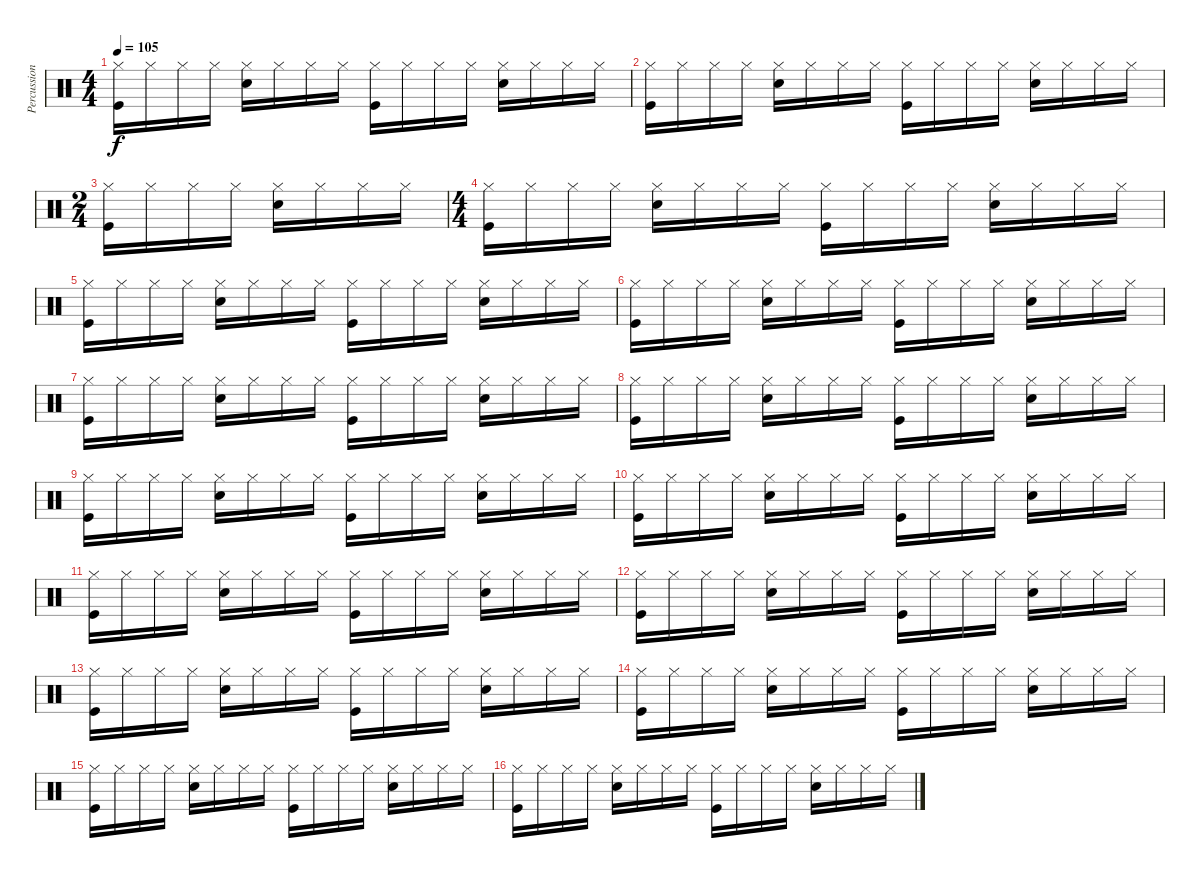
\track ("Percussion" "Percussion") {instrument percussion}
\staff {score}
\articulation defaults
\ts (4 4)
\tempo 105
\clef neutral
\ks c
("Hi-Hat (closed)" "Kick (hit)").16{dy f} "Hi-Hat (closed)".16 "Hi-Hat (closed)".16 "Hi-Hat (closed)".16 ("Hi-Hat (closed)" "Snare (hit) 2").16 "Hi-Hat (closed)".16 "Hi-Hat (closed)".16 "Hi-Hat (closed)".16 ("Hi-Hat (closed)" "Kick (hit)").16 "Hi-Hat (closed)".16 "Hi-Hat (closed)".16 "Hi-Hat (closed)".16 ("Hi-Hat (closed)" "Snare (hit) 2").16 "Hi-Hat (closed)".16 "Hi-Hat (closed)".16 "Hi-Hat (closed)".16 |
("Hi-Hat (closed)" "Kick (hit)").16 "Hi-Hat (closed)".16 "Hi-Hat (closed)".16 "Hi-Hat (closed)".16 ("Hi-Hat (closed)" "Snare (hit) 2").16 "Hi-Hat (closed)".16 "Hi-Hat (closed)".16 "Hi-Hat (closed)".16 ("Hi-Hat (closed)" "Kick (hit)").16 "Hi-Hat (closed)".16 "Hi-Hat (closed)".16 "Hi-Hat (closed)".16 ("Hi-Hat (closed)" "Snare (hit) 2").16 "Hi-Hat (closed)".16 "Hi-Hat (closed)".16 "Hi-Hat (closed)".16 |
\ts (2 4)
("Hi-Hat (closed)" "Kick (hit)").16 "Hi-Hat (closed)".16 "Hi-Hat (closed)".16 "Hi-Hat (closed)".16 ("Hi-Hat (closed)" "Snare (hit) 2").16 "Hi-Hat (closed)".16 "Hi-Hat (closed)".16 "Hi-Hat (closed)".16 |
\ts (4 4)
("Hi-Hat (closed)" "Kick (hit)").16 "Hi-Hat (closed)".16 "Hi-Hat (closed)".16 "Hi-Hat (closed)".16 ("Hi-Hat (closed)" "Snare (hit) 2").16 "Hi-Hat (closed)".16 "Hi-Hat (closed)".16 "Hi-Hat (closed)".16 ("Hi-Hat (closed)" "Kick (hit)").16 "Hi-Hat (closed)".16 "Hi-Hat (closed)".16 "Hi-Hat (closed)".16 ("Hi-Hat (closed)" "Snare (hit) 2").16 "Hi-Hat (closed)".16 "Hi-Hat (closed)".16 "Hi-Hat (closed)".16 |
("Hi-Hat (closed)" "Kick (hit)").16 "Hi-Hat (closed)".16 "Hi-Hat (closed)".16 "Hi-Hat (closed)".16 ("Hi-Hat (closed)" "Snare (hit) 2").16 "Hi-Hat (closed)".16 "Hi-Hat (closed)".16 "Hi-Hat (closed)".16 ("Hi-Hat (closed)" "Kick (hit)").16 "Hi-Hat (closed)".16 "Hi-Hat (closed)".16 "Hi-Hat (closed)".16 ("Hi-Hat (closed)" "Snare (hit) 2").16 "Hi-Hat (closed)".16 "Hi-Hat (closed)".16 "Hi-Hat (closed)".16 |
("Hi-Hat (closed)" "Kick (hit)").16 "Hi-Hat (closed)".16 "Hi-Hat (closed)".16 "Hi-Hat (closed)".16 ("Hi-Hat (closed)" "Snare (hit) 2").16 "Hi-Hat (closed)".16 "Hi-Hat (closed)".16 "Hi-Hat (closed)".16 ("Hi-Hat (closed)" "Kick (hit)").16 "Hi-Hat (closed)".16 "Hi-Hat (closed)".16 "Hi-Hat (closed)".16 ("Hi-Hat (closed)" "Snare (hit) 2").16 "Hi-Hat (closed)".16 "Hi-Hat (closed)".16 "Hi-Hat (closed)".16 |
("Hi-Hat (closed)" "Kick (hit)").16 "Hi-Hat (closed)".16 "Hi-Hat (closed)".16 "Hi-Hat (closed)".16 ("Hi-Hat (closed)" "Snare (hit) 2").16 "Hi-Hat (closed)".16 "Hi-Hat (closed)".16 "Hi-Hat (closed)".16 ("Hi-Hat (closed)" "Kick (hit)").16 "Hi-Hat (closed)".16 "Hi-Hat (closed)".16 "Hi-Hat (closed)".16 ("Hi-Hat (closed)" "Snare (hit) 2").16 "Hi-Hat (closed)".16 "Hi-Hat (closed)".16 "Hi-Hat (closed)".16 |
("Hi-Hat (closed)" "Kick (hit)").16 "Hi-Hat (closed)".16 "Hi-Hat (closed)".16 "Hi-Hat (closed)".16 ("Hi-Hat (closed)" "Snare (hit) 2").16 "Hi-Hat (closed)".16 "Hi-Hat (closed)".16 "Hi-Hat (closed)".16 ("Hi-Hat (closed)" "Kick (hit)").16 "Hi-Hat (closed)".16 "Hi-Hat (closed)".16 "Hi-Hat (closed)".16 ("Hi-Hat (closed)" "Snare (hit) 2").16 "Hi-Hat (closed)".16 "Hi-Hat (closed)".16 "Hi-Hat (closed)".16 |
("Hi-Hat (closed)" "Kick (hit)").16 "Hi-Hat (closed)".16 "Hi-Hat (closed)".16 "Hi-Hat (closed)".16 ("Hi-Hat (closed)" "Snare (hit) 2").16 "Hi-Hat (closed)".16 "Hi-Hat (closed)".16 "Hi-Hat (closed)".16 ("Hi-Hat (closed)" "Kick (hit)").16 "Hi-Hat (closed)".16 "Hi-Hat (closed)".16 "Hi-Hat (closed)".16 ("Hi-Hat (closed)" "Snare (hit) 2").16 "Hi-Hat (closed)".16 "Hi-Hat (closed)".16 "Hi-Hat (closed)".16 |
("Hi-Hat (closed)" "Kick (hit)").16 "Hi-Hat (closed)".16 "Hi-Hat (closed)".16 "Hi-Hat (closed)".16 ("Hi-Hat (closed)" "Snare (hit) 2").16 "Hi-Hat (closed)".16 "Hi-Hat (closed)".16 "Hi-Hat (closed)".16 ("Hi-Hat (closed)" "Kick (hit)").16 "Hi-Hat (closed)".16 "Hi-Hat (closed)".16 "Hi-Hat (closed)".16 ("Hi-Hat (closed)" "Snare (hit) 2").16 "Hi-Hat (closed)".16 "Hi-Hat (closed)".16 "Hi-Hat (closed)".16 |
("Hi-Hat (closed)" "Kick (hit)").16 "Hi-Hat (closed)".16 "Hi-Hat (closed)".16 "Hi-Hat (closed)".16 ("Hi-Hat (closed)" "Snare (hit) 2").16 "Hi-Hat (closed)".16 "Hi-Hat (closed)".16 "Hi-Hat (closed)".16 ("Hi-Hat (closed)" "Kick (hit)").16 "Hi-Hat (closed)".16 "Hi-Hat (closed)".16 "Hi-Hat (closed)".16 ("Hi-Hat (closed)" "Snare (hit) 2").16 "Hi-Hat (closed)".16 "Hi-Hat (closed)".16 "Hi-Hat (closed)".16 |
("Hi-Hat (closed)" "Kick (hit)").16 "Hi-Hat (closed)".16 "Hi-Hat (closed)".16 "Hi-Hat (closed)".16 ("Hi-Hat (closed)" "Snare (hit) 2").16 "Hi-Hat (closed)".16 "Hi-Hat (closed)".16 "Hi-Hat (closed)".16 ("Hi-Hat (closed)" "Kick (hit)").16 "Hi-Hat (closed)".16 "Hi-Hat (closed)".16 "Hi-Hat (closed)".16 ("Hi-Hat (closed)" "Snare (hit) 2").16 "Hi-Hat (closed)".16 "Hi-Hat (closed)".16 "Hi-Hat (closed)".16 |
("Hi-Hat (closed)" "Kick (hit)").16 "Hi-Hat (closed)".16 "Hi-Hat (closed)".16 "Hi-Hat (closed)".16 ("Hi-Hat (closed)" "Snare (hit) 2").16 "Hi-Hat (closed)".16 "Hi-Hat (closed)".16 "Hi-Hat (closed)".16 ("Hi-Hat (closed)" "Kick (hit)").16 "Hi-Hat (closed)".16 "Hi-Hat (closed)".16 "Hi-Hat (closed)".16 ("Hi-Hat (closed)" "Snare (hit) 2").16 "Hi-Hat (closed)".16 "Hi-Hat (closed)".16 "Hi-Hat (closed)".16 |
("Hi-Hat (closed)" "Kick (hit)").16 "Hi-Hat (closed)".16 "Hi-Hat (closed)".16 "Hi-Hat (closed)".16 ("Hi-Hat (closed)" "Snare (hit) 2").16 "Hi-Hat (closed)".16 "Hi-Hat (closed)".16 "Hi-Hat (closed)".16 ("Hi-Hat (closed)" "Kick (hit)").16 "Hi-Hat (closed)".16 "Hi-Hat (closed)".16 "Hi-Hat (closed)".16 ("Hi-Hat (closed)" "Snare (hit) 2").16 "Hi-Hat (closed)".16 "Hi-Hat (closed)".16 "Hi-Hat (closed)".16 |
("Hi-Hat (closed)" "Kick (hit)").16 "Hi-Hat (closed)".16 "Hi-Hat (closed)".16 "Hi-Hat (closed)".16 ("Hi-Hat (closed)" "Snare (hit) 2").16 "Hi-Hat (closed)".16 "Hi-Hat (closed)".16 "Hi-Hat (closed)".16 ("Hi-Hat (closed)" "Kick (hit)").16 "Hi-Hat (closed)".16 "Hi-Hat (closed)".16 "Hi-Hat (closed)".16 ("Hi-Hat (closed)" "Snare (hit) 2").16 "Hi-Hat (closed)".16 "Hi-Hat (closed)".16 "Hi-Hat (closed)".16 |
("Hi-Hat (closed)" "Kick (hit)").16 "Hi-Hat (closed)".16 "Hi-Hat (closed)".16 "Hi-Hat (closed)".16 ("Hi-Hat (closed)" "Snare (hit) 2").16 "Hi-Hat (closed)".16 "Hi-Hat (closed)".16 "Hi-Hat (closed)".16 ("Hi-Hat (closed)" "Kick (hit)").16 "Hi-Hat (closed)".16 "Hi-Hat (closed)".16 "Hi-Hat (closed)".16 ("Hi-Hat (closed)" "Snare (hit) 2").16 "Hi-Hat (closed)".16 "Hi-Hat (closed)".16 "Hi-Hat (closed)".16
